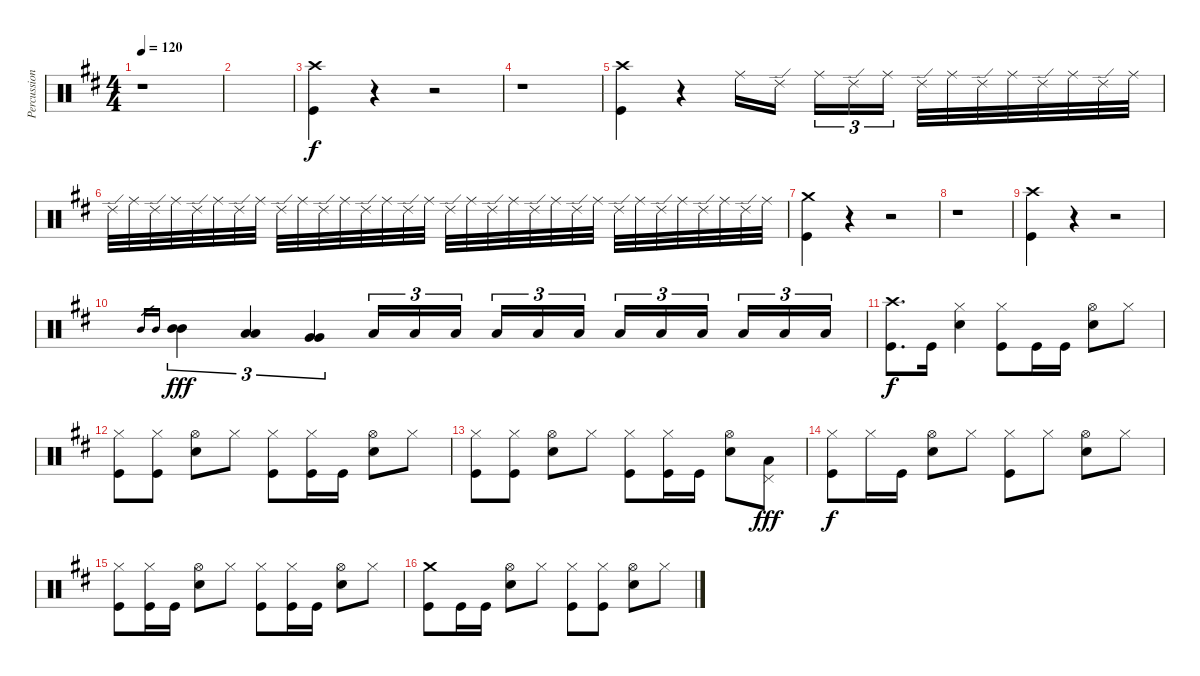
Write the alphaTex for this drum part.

\track ("Percussion" "Percussion") {instrument percussion}
\staff {score}
\articulation defaults
\ts (4 4)
\tempo 120
\clef neutral
\ks d
r.1{dy f} |
|
("Crash high (hit)" "Kick (hit)").4 r.4 r.2 |
r.1 |
("Crash high (hit)" "Kick (hit)").4 r.4 "Ride (middle)".16 "Ride (edge) 2".16{beam splitsecondary} "Ride (middle)".16{tu (3 2)} "Ride (edge) 2".16{tu (3 2)} "Ride (middle)".16{tu (3 2)} "Ride (edge) 2".32 "Ride (middle)".32 "Ride (edge) 2".32 "Ride (middle)".32 "Ride (edge) 2".32 "Ride (middle)".32 "Ride (edge) 2".32 "Ride (middle)".32 |
"Ride (edge) 2".32 "Ride (middle)".32 "Ride (edge) 2".32 "Ride (middle)".32 "Ride (edge) 2".32 "Ride (middle)".32 "Ride (edge) 2".32 "Ride (middle)".32 "Ride (edge) 2".32 "Ride (middle)".32 "Ride (edge) 2".32 "Ride (middle)".32 "Ride (edge) 2".32 "Ride (middle)".32 "Ride (edge) 2".32 "Ride (middle)".32 "Ride (edge) 2".32 "Ride (middle)".32 "Ride (edge) 2".32 "Ride (middle)".32 "Ride (edge) 2".32 "Ride (middle)".32 "Ride (edge) 2".32 "Ride (middle)".32 "Ride (edge) 2".32 "Ride (middle)".32 "Ride (edge) 2".32 "Ride (middle)".32 "Ride (edge) 2".32 "Ride (middle)".32 "Ride (edge) 2".32 "Ride (middle)".32 |
("Crash medium (hit)" "Kick (hit)").4 r.4 r.2 |
r.1 |
("Crash high (hit)" "Kick (hit)").4 r.4 r.2 |
"Mid Tom (hit)".16{gr} "Mid Tom (hit)".16{gr} ("Mid Tom (hit)" "Mid Tom (hit)").4{tu (3 2) dy fff} ("Low Tom (hit)" "Low Tom (hit)").4{tu (3 2)} ("Very Low Tom (hit)" "Very Low Tom (hit)").4{tu (3 2)} "Low Tom (hit)".16{tu (3 2)} "Low Tom (hit)".16{tu (3 2)} "Low Tom (hit)".16{tu (3 2) beam splitsecondary} "Low Tom (hit)".16{tu (3 2)} "Low Tom (hit)".16{tu (3 2)} "Low Tom (hit)".16{tu (3 2)} "Low Floor Tom (hit)".16{tu (3 2)} "Low Floor Tom (hit)".16{tu (3 2)} "Low Floor Tom (hit)".16{tu (3 2) beam splitsecondary} "Low Floor Tom (hit)".16{tu (3 2)} "Low Floor Tom (hit)".16{tu (3 2)} "Low Floor Tom (hit)".16{tu (3 2)} |
("Crash high (hit)" "Kick (hit)").8{d dy f} "Kick (hit)".16 ("Hi-Hat (closed)" "Snare (hit) 2").4 ("Hi-Hat (closed)" "Kick (hit)").8 "Kick (hit)".16 "Kick (hit)".16 ("Hi-Hat (open)" "Snare (hit) 2").8 "Hi-Hat (closed)".8 |
("Hi-Hat (closed)" "Kick (hit)").8 ("Hi-Hat (closed)" "Kick (hit)").8 ("Hi-Hat (open)" "Snare (hit) 2").8 "Hi-Hat (closed)".8 ("Hi-Hat (closed)" "Kick (hit)").8 ("Hi-Hat (closed)" "Kick (hit)").16 "Kick (hit)".16 ("Hi-Hat (open)" "Snare (hit) 2").8 "Hi-Hat (closed)".8 |
("Hi-Hat (closed)" "Kick (hit)").8 ("Hi-Hat (closed)" "Kick (hit)").8 ("Hi-Hat (open)" "Snare (hit) 2").8 "Hi-Hat (closed)".8 ("Hi-Hat (closed)" "Kick (hit)").8 ("Hi-Hat (closed)" "Kick (hit)").16 "Kick (hit)".16 ("Hi-Hat (open)" "Snare (hit) 2").8 ("Pedal Hi-Hat (hit)" "Low Tom (hit)").8{dy fff} |
("Hi-Hat (closed)" "Kick (hit)").8{dy f} "Hi-Hat (closed)".16 "Kick (hit)".16 ("Hi-Hat (open)" "Snare (hit) 2").8 "Hi-Hat (closed)".8 ("Hi-Hat (closed)" "Kick (hit)").8 "Hi-Hat (closed)".8 ("Hi-Hat (open)" "Snare (hit) 2").8 "Hi-Hat (closed)".8 |
("Hi-Hat (closed)" "Kick (hit)").8 ("Hi-Hat (closed)" "Kick (hit)").16 "Kick (hit)".16 ("Hi-Hat (open)" "Snare (hit) 2").8 "Hi-Hat (closed)".8 ("Hi-Hat (closed)" "Kick (hit)").8 ("Hi-Hat (closed)" "Kick (hit)").16 "Kick (hit)".16 ("Hi-Hat (open)" "Snare (hit) 2").8 "Hi-Hat (closed)".8 |
("Crash medium (hit)" "Kick (hit)").8 "Kick (hit)".16 "Kick (hit)".16 ("Hi-Hat (open)" "Snare (hit) 2").8 "Hi-Hat (closed)".8 ("Hi-Hat (closed)" "Kick (hit)").8 ("Hi-Hat (closed)" "Kick (hit)").8 ("Hi-Hat (open)" "Snare (hit) 2").8 "Hi-Hat (closed)".8
